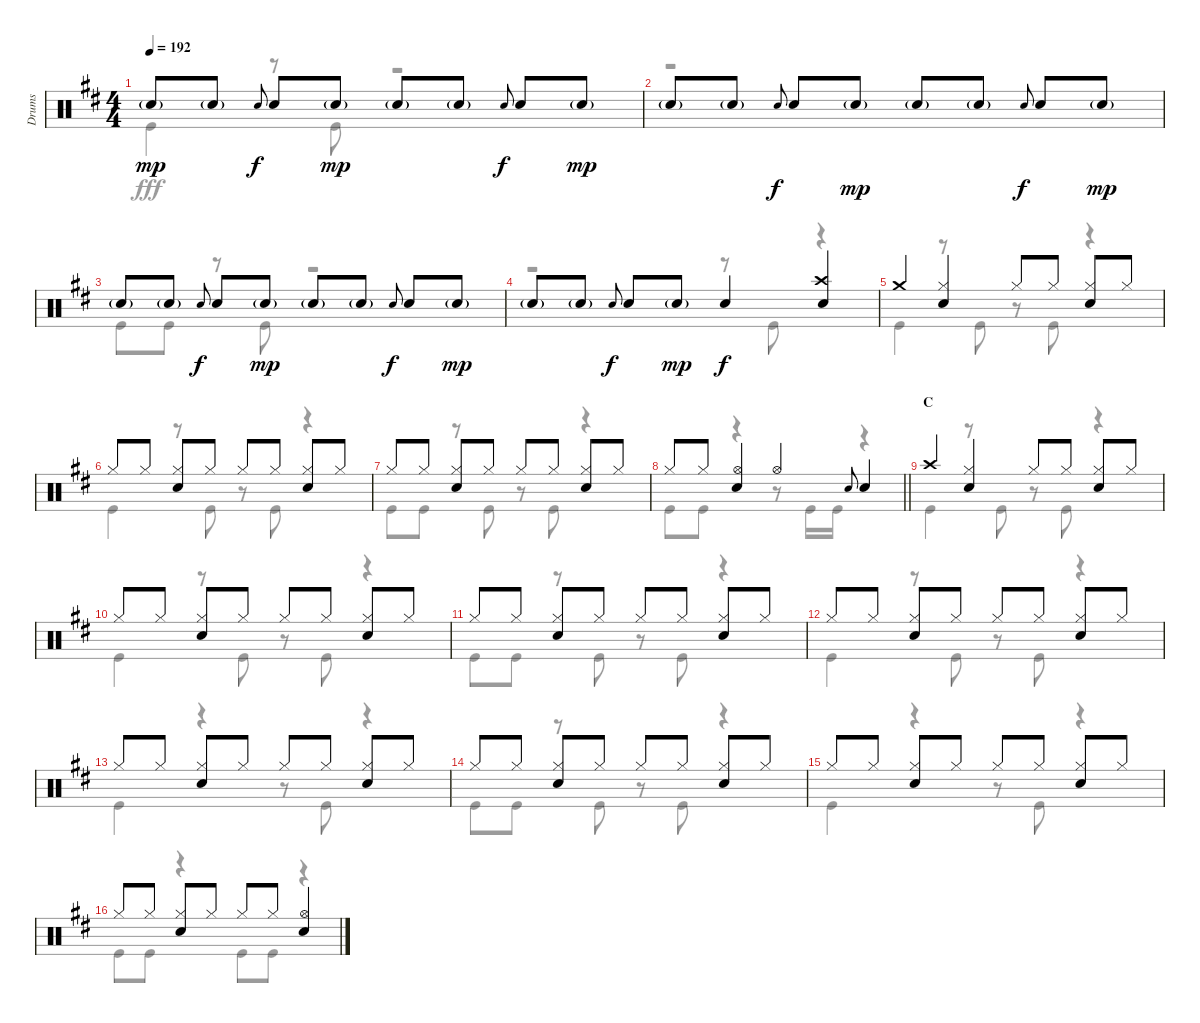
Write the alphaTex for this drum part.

\track ("Drums" "Drums") {instrument percussion}
\staff {score}
\articulation defaults
\voice
\ts (4 4)
\tempo 192
\clef neutral
\ks d "Snare (hit) 2"{g}.8{dy mp} "Snare (hit) 2"{g}.8 "Snare (hit) 2".8{gr onbeat dy f} "Snare (hit) 2".8 "Snare (hit) 2"{g}.8{dy mp} "Snare (hit) 2"{g}.8 "Snare (hit) 2"{g}.8 "Snare (hit) 2".8{gr onbeat dy f} "Snare (hit) 2".8 "Snare (hit) 2"{g}.8{dy mp}
|
"Snare (hit) 2"{g}.8 "Snare (hit) 2"{g}.8 "Snare (hit) 2".8{gr onbeat dy f} "Snare (hit) 2".8 "Snare (hit) 2"{g}.8{dy mp} "Snare (hit) 2"{g}.8 "Snare (hit) 2"{g}.8 "Snare (hit) 2".8{gr onbeat dy f} "Snare (hit) 2".8 "Snare (hit) 2"{g}.8{dy mp} |
"Snare (hit) 2"{g}.8 "Snare (hit) 2"{g}.8 "Snare (hit) 2".8{gr onbeat dy f} "Snare (hit) 2".8 "Snare (hit) 2"{g}.8{dy mp} "Snare (hit) 2"{g}.8 "Snare (hit) 2"{g}.8 "Snare (hit) 2".8{gr onbeat dy f} "Snare (hit) 2".8 "Snare (hit) 2"{g}.8{dy mp} |
"Snare (hit) 2"{g}.8 "Snare (hit) 2"{g}.8 "Snare (hit) 2".8{gr onbeat dy f} "Snare (hit) 2".8 "Snare (hit) 2"{g}.8{dy mp} "Snare (hit) 2".4{dy f} ("Crash high (hit)" "Snare (hit) 2").4 |
"Crash medium (hit)".4 ("Hi-Hat (closed)" "Snare (hit) 2").4 "Hi-Hat (closed)".8 "Hi-Hat (closed)".8 ("Hi-Hat (closed)" "Snare (hit) 2").8 "Hi-Hat (closed)".8 |
"Hi-Hat (closed)".8 "Hi-Hat (closed)".8 ("Hi-Hat (closed)" "Snare (hit) 2").8 "Hi-Hat (closed)".8 "Hi-Hat (closed)".8 "Hi-Hat (closed)".8 ("Hi-Hat (closed)" "Snare (hit) 2").8 "Hi-Hat (closed)".8 |
"Hi-Hat (closed)".8 "Hi-Hat (closed)".8 ("Hi-Hat (closed)" "Snare (hit) 2").8 "Hi-Hat (closed)".8 "Hi-Hat (closed)".8 "Hi-Hat (closed)".8 ("Hi-Hat (closed)" "Snare (hit) 2").8 "Hi-Hat (closed)".8 |
\barLineRight lightlight "Hi-Hat (closed)".8 "Hi-Hat (closed)".8
("Hi-Hat (open)" "Snare (hit) 2").4 "Hi-Hat (open)".4 "Snare (hit) 2".8{gr onbeat} "Snare (hit) 2".4 |
\section ("" "C")
"Crash high (hit)".4 ("Hi-Hat (closed)" "Snare (hit) 2").4 "Hi-Hat (closed)".8 "Hi-Hat (closed)".8 ("Hi-Hat (closed)" "Snare (hit) 2").8 "Hi-Hat (closed)".8 |
"Hi-Hat (closed)".8 "Hi-Hat (closed)".8 ("Hi-Hat (closed)" "Snare (hit) 2").8 "Hi-Hat (closed)".8 "Hi-Hat (closed)".8 "Hi-Hat (closed)".8 ("Hi-Hat (closed)" "Snare (hit) 2").8 "Hi-Hat (closed)".8 |
"Hi-Hat (closed)".8 "Hi-Hat (closed)".8 ("Hi-Hat (closed)" "Snare (hit) 2").8 "Hi-Hat (closed)".8 "Hi-Hat (closed)".8 "Hi-Hat (closed)".8 ("Hi-Hat (closed)" "Snare (hit) 2").8 "Hi-Hat (closed)".8 |
"Hi-Hat (closed)".8 "Hi-Hat (closed)".8 ("Hi-Hat (closed)" "Snare (hit) 2").8 "Hi-Hat (closed)".8 "Hi-Hat (closed)".8 "Hi-Hat (closed)".8 ("Hi-Hat (closed)" "Snare (hit) 2").8 "Hi-Hat (closed)".8 |
"Hi-Hat (closed)".8 "Hi-Hat (closed)".8 ("Hi-Hat (closed)" "Snare (hit) 2").8 "Hi-Hat (closed)".8 "Hi-Hat (closed)".8 "Hi-Hat (closed)".8 ("Hi-Hat (closed)" "Snare (hit) 2").8 "Hi-Hat (closed)".8 |
"Hi-Hat (closed)".8 "Hi-Hat (closed)".8 ("Hi-Hat (closed)" "Snare (hit) 2").8 "Hi-Hat (closed)".8 "Hi-Hat (closed)".8 "Hi-Hat (closed)".8 ("Hi-Hat (closed)" "Snare (hit) 2").8 "Hi-Hat (closed)".8 |
"Hi-Hat (closed)".8 "Hi-Hat (closed)".8 ("Hi-Hat (closed)" "Snare (hit) 2").8 "Hi-Hat (closed)".8 "Hi-Hat (closed)".8 "Hi-Hat (closed)".8 ("Hi-Hat (closed)" "Snare (hit) 2").8 "Hi-Hat (closed)".8 |
"Hi-Hat (closed)".8 "Hi-Hat (closed)".8 ("Hi-Hat (closed)" "Snare (hit) 2").8 "Hi-Hat (closed)".8 "Hi-Hat (closed)".8 "Hi-Hat (closed)".8 ("Hi-Hat (open)" "Snare (hit) 2").4
\voice
\clef neutral
\ottava regular
\simile none
\ks d "Kick (hit)".4{dy fff}
r.8 "Kick (hit)".8 r.2 |
r.1 |
"Kick (hit)".8 "Kick (hit)".8 r.8 "Kick (hit)".8 r.2 |
r.2 r.8 "Kick (hit)".8 r.4 |
"Kick (hit)".4 r.8 "Kick (hit)".8 r.8 "Kick (hit)".8 r.4 |
"Kick (hit)".4 r.8 "Kick (hit)".8 r.8 "Kick (hit)".8 r.4 |
"Kick (hit)".8 "Kick (hit)".8 r.8 "Kick (hit)".8 r.8 "Kick (hit)".8 r.4 |
\barLineRight lightlight "Kick (hit)".8 "Kick (hit)".8
r.4 r.8 "Kick (hit)".16 "Kick (hit)".16 r.4 |
"Kick (hit)".4 r.8 "Kick (hit)".8 r.8 "Kick (hit)".8 r.4 |
"Kick (hit)".4 r.8 "Kick (hit)".8 r.8 "Kick (hit)".8 r.4 |
"Kick (hit)".8 "Kick (hit)".8 r.8 "Kick (hit)".8 r.8 "Kick (hit)".8 r.4 |
"Kick (hit)".4 r.8 "Kick (hit)".8 r.8 "Kick (hit)".8 r.4 |
"Kick (hit)".4 r.4 r.8 "Kick (hit)".8 r.4 |
"Kick (hit)".8 "Kick (hit)".8 r.8 "Kick (hit)".8 r.8 "Kick (hit)".8 r.4 |
"Kick (hit)".4 r.4 r.8 "Kick (hit)".8 r.4 |
"Kick (hit)".8 "Kick (hit)".8 r.4 "Kick (hit)".8 "Kick (hit)".8 r.4
